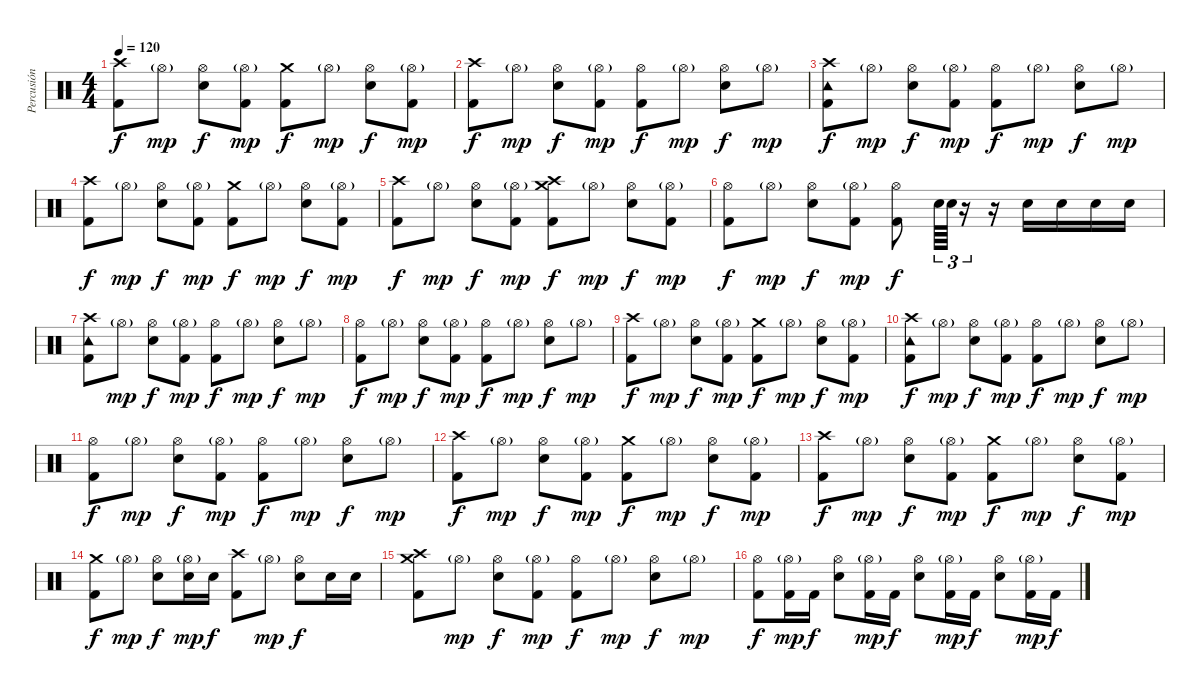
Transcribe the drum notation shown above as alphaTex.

\track ("Percusión" "Percusión") {instrument percussion}
\staff {score}
\articulation defaults
\ts (4 4)
\tempo 120
\clef neutral
\ks c
("Crash high (hit)" "Kick (hit) 2").8{dy f} "Hi-Hat (open)"{g}.8{dy mp} ("Hi-Hat (open)" "Snare (hit) 2").8{dy f} ("Hi-Hat (open)"{g} "Kick (hit) 2").8{dy mp} ("Crash medium (hit)" "Kick (hit) 2").8{dy f} "Hi-Hat (open)"{g}.8{dy mp} ("Hi-Hat (open)" "Snare (hit) 2").8{dy f} ("Hi-Hat (open)"{g} "Kick (hit) 2").8{dy mp} |
("Crash high (hit)" "Kick (hit) 2").8{dy f} "Hi-Hat (open)"{g}.8{dy mp} ("Hi-Hat (open)" "Snare (hit) 2").8{dy f} ("Hi-Hat (open)"{g} "Kick (hit) 2").8{dy mp} ("Hi-Hat (open)" "Kick (hit) 2").8{dy f} "Hi-Hat (open)"{g}.8{dy mp} ("Hi-Hat (open)" "Snare (hit) 2").8{dy f} "Hi-Hat (open)"{g}.8{dy mp} |
("Crash high (hit)" "Tambourine (hit)" "Kick (hit) 2").8{dy f} "Hi-Hat (open)"{g}.8{dy mp} ("Hi-Hat (open)" "Snare (hit) 2").8{dy f} ("Hi-Hat (open)"{g} "Kick (hit) 2").8{dy mp} ("Hi-Hat (open)" "Kick (hit) 2").8{dy f} "Hi-Hat (open)"{g}.8{dy mp} ("Hi-Hat (open)" "Snare (hit) 2").8{dy f} "Hi-Hat (open)"{g}.8{dy mp} |
("Crash high (hit)" "Kick (hit) 2").8{dy f} "Hi-Hat (open)"{g}.8{dy mp} ("Hi-Hat (open)" "Snare (hit) 2").8{dy f} ("Hi-Hat (open)"{g} "Kick (hit) 2").8{dy mp} ("Crash medium (hit)" "Kick (hit) 2").8{dy f} "Hi-Hat (open)"{g}.8{dy mp} ("Hi-Hat (open)" "Snare (hit) 2").8{dy f} ("Hi-Hat (open)"{g} "Kick (hit) 2").8{dy mp} |
("Crash high (hit)" "Kick (hit) 2").8{dy f} "Hi-Hat (open)"{g}.8{dy mp} ("Hi-Hat (open)" "Snare (hit) 2").8{dy f} ("Hi-Hat (open)"{g} "Kick (hit) 2").8{dy mp} ("Crash medium (hit)" "Crash high (hit)" "Kick (hit) 2").8{dy f} "Hi-Hat (open)"{g}.8{dy mp} ("Hi-Hat (open)" "Snare (hit) 2").8{dy f} ("Hi-Hat (open)"{g} "Kick (hit) 2").8{dy mp} |
("Hi-Hat (open)" "Kick (hit) 2").8{dy f} "Hi-Hat (open)"{g}.8{dy mp} ("Hi-Hat (open)" "Snare (hit) 2").8{dy f} ("Hi-Hat (open)"{g} "Kick (hit) 2").8{dy mp} ("Hi-Hat (open)" "Kick (hit) 2").8{dy f} "Snare (hit) 2".64{tu (3 2)} "Snare (hit) 2".64{tu (3 2)} r.16{tu (3 2)} r.16 "Snare (hit) 2".16 "Snare (hit) 2".16 "Snare (hit) 2".16 "Snare (hit) 2".16 |
("Crash high (hit)" "Tambourine (hit)" "Kick (hit) 2").8 "Hi-Hat (open)"{g}.8{dy mp} ("Hi-Hat (open)" "Snare (hit) 2").8{dy f} ("Hi-Hat (open)"{g} "Kick (hit) 2").8{dy mp} ("Hi-Hat (open)" "Kick (hit) 2").8{dy f} "Hi-Hat (open)"{g}.8{dy mp} ("Hi-Hat (open)" "Snare (hit) 2").8{dy f} "Hi-Hat (open)"{g}.8{dy mp} |
("Hi-Hat (open)" "Kick (hit) 2").8{dy f} "Hi-Hat (open)"{g}.8{dy mp} ("Hi-Hat (open)" "Snare (hit) 2").8{dy f} ("Hi-Hat (open)"{g} "Kick (hit) 2").8{dy mp} ("Hi-Hat (open)" "Kick (hit) 2").8{dy f} "Hi-Hat (open)"{g}.8{dy mp} ("Hi-Hat (open)" "Snare (hit) 2").8{dy f} "Hi-Hat (open)"{g}.8{dy mp} |
("Crash high (hit)" "Kick (hit) 2").8{dy f} "Hi-Hat (open)"{g}.8{dy mp} ("Hi-Hat (open)" "Snare (hit) 2").8{dy f} ("Hi-Hat (open)"{g} "Kick (hit) 2").8{dy mp} ("Crash medium (hit)" "Kick (hit) 2").8{dy f} "Hi-Hat (open)"{g}.8{dy mp} ("Hi-Hat (open)" "Snare (hit) 2").8{dy f} ("Hi-Hat (open)"{g} "Kick (hit) 2").8{dy mp} |
("Crash high (hit)" "Tambourine (hit)" "Kick (hit) 2").8{dy f} "Hi-Hat (open)"{g}.8{dy mp} ("Hi-Hat (open)" "Snare (hit) 2").8{dy f} ("Hi-Hat (open)"{g} "Kick (hit) 2").8{dy mp} ("Hi-Hat (open)" "Kick (hit) 2").8{dy f} "Hi-Hat (open)"{g}.8{dy mp} ("Hi-Hat (open)" "Snare (hit) 2").8{dy f} "Hi-Hat (open)"{g}.8{dy mp} |
("Hi-Hat (open)" "Kick (hit) 2").8{dy f} "Hi-Hat (open)"{g}.8{dy mp} ("Hi-Hat (open)" "Snare (hit) 2").8{dy f} ("Hi-Hat (open)"{g} "Kick (hit) 2").8{dy mp} ("Hi-Hat (open)" "Kick (hit) 2").8{dy f} "Hi-Hat (open)"{g}.8{dy mp} ("Hi-Hat (open)" "Snare (hit) 2").8{dy f} "Hi-Hat (open)"{g}.8{dy mp} |
("Crash high (hit)" "Kick (hit) 2").8{dy f} "Hi-Hat (open)"{g}.8{dy mp} ("Hi-Hat (open)" "Snare (hit) 2").8{dy f} ("Hi-Hat (open)"{g} "Kick (hit) 2").8{dy mp} ("Crash medium (hit)" "Kick (hit) 2").8{dy f} "Hi-Hat (open)"{g}.8{dy mp} ("Hi-Hat (open)" "Snare (hit) 2").8{dy f} ("Hi-Hat (open)"{g} "Kick (hit) 2").8{dy mp} |
("Crash high (hit)" "Kick (hit) 2").8{dy f} "Hi-Hat (open)"{g}.8{dy mp} ("Hi-Hat (open)" "Snare (hit) 2").8{dy f} ("Hi-Hat (open)"{g} "Kick (hit) 2").8{dy mp} ("Crash medium (hit)" "Kick (hit) 2").8{dy f} "Hi-Hat (open)"{g}.8{dy mp} ("Hi-Hat (open)" "Snare (hit) 2").8{dy f} ("Hi-Hat (open)"{g} "Kick (hit) 2").8{dy mp} |
("Crash medium (hit)" "Kick (hit) 2").8{dy f} "Hi-Hat (open)"{g}.8{dy mp} ("Hi-Hat (open)" "Snare (hit) 2").8{dy f} ("Hi-Hat (open)"{g} "Snare (hit) 2").16{dy mp} "Snare (hit) 2".16{dy f} ("Crash high (hit)" "Kick (hit) 2").8 "Hi-Hat (open)"{g}.8{dy mp} ("Hi-Hat (open)" "Snare (hit) 2").8{dy f} "Snare (hit) 2".16 "Snare (hit) 2".16 |
("Crash high (hit)" "Crash medium (hit)" "Kick (hit) 2").8 "Hi-Hat (open)"{g}.8{dy mp} ("Hi-Hat (open)" "Snare (hit) 2").8{dy f} ("Hi-Hat (open)"{g} "Kick (hit) 2").8{dy mp} ("Hi-Hat (open)" "Kick (hit) 2").8{dy f} "Hi-Hat (open)"{g}.8{dy mp} ("Hi-Hat (open)" "Snare (hit) 2").8{dy f} "Hi-Hat (open)"{g}.8{dy mp} |
("Hi-Hat (open)" "Kick (hit) 2").8{dy f} ("Hi-Hat (open)"{g} "Kick (hit) 2").16{dy mp} "Kick (hit) 2".16{dy f} ("Hi-Hat (open)" "Snare (hit) 2").8 ("Hi-Hat (open)"{g} "Kick (hit) 2").16{dy mp} "Kick (hit) 2".16{dy f} ("Hi-Hat (open)" "Snare (hit) 2").8 ("Hi-Hat (open)"{g} "Kick (hit) 2").16{dy mp} "Kick (hit) 2".16{dy f} ("Hi-Hat (open)" "Snare (hit) 2").8 ("Hi-Hat (open)"{g} "Kick (hit) 2").16{dy mp} "Kick (hit) 2".16{dy f}
